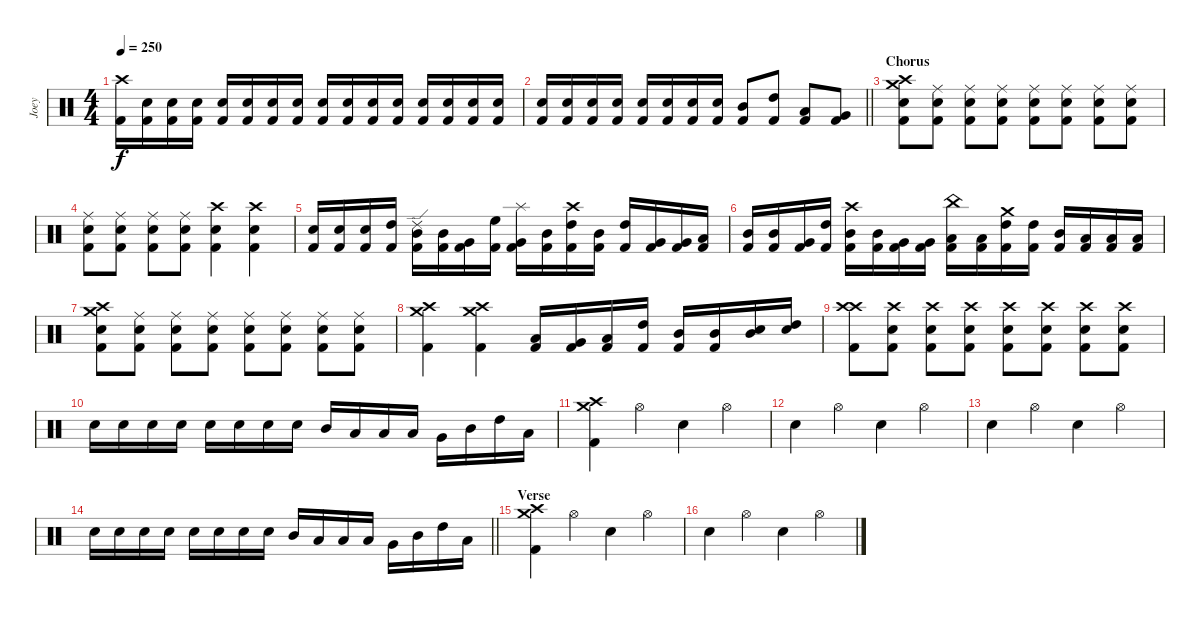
\track ("Joey" "Joey") {instrument percussion}
\staff {score}
\articulation defaults
\ts (4 4)
\tempo 250
\clef neutral
\ks c
("Crash high (hit)" "Kick (hit) 2").16{dy f} ("Snare (hit) 2" "Kick (hit) 2").16 ("Snare (hit) 2" "Kick (hit) 2").16 ("Snare (hit) 2" "Kick (hit) 2").16 ("Snare (hit) 2" "Kick (hit) 2").16 ("Snare (hit) 2" "Kick (hit) 2").16 ("Snare (hit) 2" "Kick (hit) 2").16 ("Snare (hit) 2" "Kick (hit) 2").16 ("Snare (hit) 2" "Kick (hit) 2").16 ("Snare (hit) 2" "Kick (hit) 2").16 ("Snare (hit) 2" "Kick (hit) 2").16 ("Snare (hit) 2" "Kick (hit) 2").16 ("Snare (hit) 2" "Kick (hit) 2").16 ("Snare (hit) 2" "Kick (hit) 2").16 ("Snare (hit) 2" "Kick (hit) 2").16 ("Snare (hit) 2" "Kick (hit) 2").16 |
\barLineRight lightlight
("Snare (hit) 2" "Kick (hit) 2").16 ("Snare (hit) 2" "Kick (hit) 2").16 ("Snare (hit) 2" "Kick (hit) 2").16 ("Snare (hit) 2" "Kick (hit) 2").16 ("Snare (hit) 2" "Kick (hit) 2").16 ("Snare (hit) 2" "Kick (hit) 2").16 ("Snare (hit) 2" "Kick (hit) 2").16 ("Snare (hit) 2" "Kick (hit) 2").16 ("Mid Tom (hit)" "Kick (hit) 2").8 ("High Tom (hit)" "Kick (hit) 2").8 ("Low Tom (hit)" "Kick (hit) 2").8 ("Very Low Tom (hit)" "Kick (hit) 2").8 |
\section ("" "Chorus")
("Crash high (hit)" "Crash medium (hit)" "Snare (hit) 2" "Kick (hit) 2").8 ("Ride (middle)" "Snare (hit) 2" "Kick (hit) 2").8 ("Ride (middle)" "Snare (hit) 2" "Kick (hit) 2").8 ("Ride (middle)" "Snare (hit) 2" "Kick (hit) 2").8 ("Ride (middle)" "Snare (hit) 2" "Kick (hit) 2").8 ("Ride (middle)" "Snare (hit) 2" "Kick (hit) 2").8 ("Ride (middle)" "Snare (hit) 2" "Kick (hit) 2").8 ("Ride (middle)" "Snare (hit) 2" "Kick (hit) 2").8 |
("Ride (middle)" "Snare (hit) 2" "Kick (hit) 2").8 ("Ride (middle)" "Snare (hit) 2" "Kick (hit) 2").8 ("Ride (middle)" "Snare (hit) 2" "Kick (hit) 2").8 ("Ride (middle)" "Snare (hit) 2" "Kick (hit) 2").8 ("Crash high (hit)" "Snare (hit) 2" "Kick (hit) 2").4 ("Crash high (hit)" "Snare (hit) 2" "Kick (hit) 2").4 |
("Snare (hit) 2" "Kick (hit) 2").16 ("Snare (hit) 2" "Kick (hit) 2").16 ("Snare (hit) 2" "Kick (hit) 2").16 ("High Tom (hit)" "Kick (hit) 2").16 ("Ride (edge) 2" "Mid Tom (hit)" "Kick (hit) 2").16 ("Mid Tom (hit)" "Kick (hit) 2").16 ("Very Low Tom (hit)" "Kick (hit) 2").16 ("High Floor Tom (hit)" "Kick (hit) 2").16 ("Splash (hit)" "Very Low Tom (hit)" "Kick (hit) 2").16 ("Mid Tom (hit)" "Kick (hit) 2").16 ("Crash high (hit)" "High Tom (hit)" "Kick (hit) 2").16 ("Mid Tom (hit)" "Kick (hit) 2").16 ("High Tom (hit)" "Kick (hit) 2").16 ("Very Low Tom (hit)" "Kick (hit) 2").16 ("Very Low Tom (hit)" "Kick (hit) 2").16 ("Low Tom (hit)" "Kick (hit) 2").16 |
("Mid Tom (hit)" "Kick (hit) 2").16 ("Mid Tom (hit)" "Kick (hit) 2").16 ("Very Low Tom (hit)" "Kick (hit) 2").16 ("High Tom (hit)" "Kick (hit) 2").16 ("Crash high (hit)" "Mid Tom (hit)" "Kick (hit) 2").16 ("Mid Tom (hit)" "Kick (hit) 2").16 ("Very Low Tom (hit)" "Kick (hit) 2").16 ("Very Low Tom (hit)" "Kick (hit) 2").16 ("China (hit)" "Low Tom (hit)" "Kick (hit) 2").16 ("Low Tom (hit)" "Kick (hit) 2").16 ("Crash medium (hit)" "High Tom (hit)" "Kick (hit) 2").16 ("High Tom (hit)" "Kick (hit) 2").16 ("Mid Tom (hit)" "Kick (hit) 2").16 ("Low Tom (hit)" "Kick (hit) 2").16 ("Low Floor Tom (hit)" "Kick (hit) 2").16 ("Low Floor Tom (hit)" "Kick (hit) 2").16 |
("Crash high (hit)" "Crash medium (hit)" "Snare (hit) 2" "Kick (hit) 2").8 ("Ride (middle)" "Snare (hit) 2" "Kick (hit) 2").8 ("Ride (middle)" "Snare (hit) 2" "Kick (hit) 2").8 ("Ride (middle)" "Snare (hit) 2" "Kick (hit) 2").8 ("Ride (middle)" "Snare (hit) 2" "Kick (hit) 2").8 ("Ride (middle)" "Snare (hit) 2" "Kick (hit) 2").8 ("Ride (middle)" "Snare (hit) 2" "Kick (hit) 2").8 ("Ride (middle)" "Snare (hit) 2" "Kick (hit) 2").8 |
("Crash high (hit)" "Crash medium (hit)" "Kick (hit) 2").4 ("Crash high (hit)" "Crash medium (hit)" "Kick (hit) 2").4 ("Low Floor Tom (hit)" "Kick (hit) 2").16 ("Very Low Tom (hit)" "Kick (hit) 2").16 ("Low Tom (hit)" "Kick (hit) 2").16 ("High Tom (hit)" "Kick (hit) 2").16 ("Mid Tom (hit)" "Kick (hit) 2").16 ("Mid Tom (hit)" "Kick (hit) 2").16 ("Mid Tom (hit)" "Snare (hit) 2").16 ("High Tom (hit)" "Snare (hit) 2").16 |
("Crash high (hit)" "Crash high (hit)" "Kick (hit) 2").8 ("Crash high (hit)" "Snare (hit) 2" "Kick (hit) 2").8 ("Crash high (hit)" "Snare (hit) 2" "Kick (hit) 2").8 ("Crash high (hit)" "Snare (hit) 2" "Kick (hit) 2").8 ("Crash high (hit)" "Snare (hit) 2" "Kick (hit) 2").8 ("Crash high (hit)" "Snare (hit) 2" "Kick (hit) 2").8 ("Crash high (hit)" "Snare (hit) 2" "Kick (hit) 2").8 ("Crash high (hit)" "Snare (hit) 2" "Kick (hit) 2").8 |
"Snare (hit) 2".16 "Snare (hit) 2".16 "Snare (hit) 2".16 "Snare (hit) 2".16 "Snare (hit) 2".16 "Snare (hit) 2".16 "Snare (hit) 2".16 "Snare (hit) 2".16 "Mid Tom (hit)".16 "Low Tom (hit)".16 "Low Tom (hit)".16 "Low Floor Tom (hit)".16 "Very Low Tom (hit)".16 "Mid Tom (hit)".16 "High Tom (hit)".16 "Low Tom (hit)".16 |
("Crash medium (hit)" "Crash high (hit)" "Kick (hit) 2").4 "Hi-Hat (open)".4 "Snare (hit)".4 "Hi-Hat (open)".4 |
"Snare (hit)".4 "Hi-Hat (open)".4 "Snare (hit)".4 "Hi-Hat (open)".4 |
"Snare (hit)".4 "Hi-Hat (open)".4 "Snare (hit)".4 "Hi-Hat (open)".4 |
\barLineRight lightlight "Snare (hit) 2".16 "Snare (hit) 2".16 "Snare (hit) 2".16 "Snare (hit) 2".16 "Snare (hit) 2".16 "Snare (hit) 2".16 "Snare (hit) 2".16 "Snare (hit) 2".16 "Mid Tom (hit)".16 "Low Tom (hit)".16 "Low Tom (hit)".16 "Low Floor Tom (hit)".16 "Very Low Tom (hit)".16 "Mid Tom (hit)".16 "High Tom (hit)".16 "Low Tom (hit)".16
|
\section ("" "Verse")
("Crash high (hit)" "Crash medium (hit)" "Kick (hit) 2").4 "Hi-Hat (open)".4 "Snare (hit)".4 "Hi-Hat (open)".4 |
"Snare (hit)".4 "Hi-Hat (open)".4 "Snare (hit)".4 "Hi-Hat (open)".4
